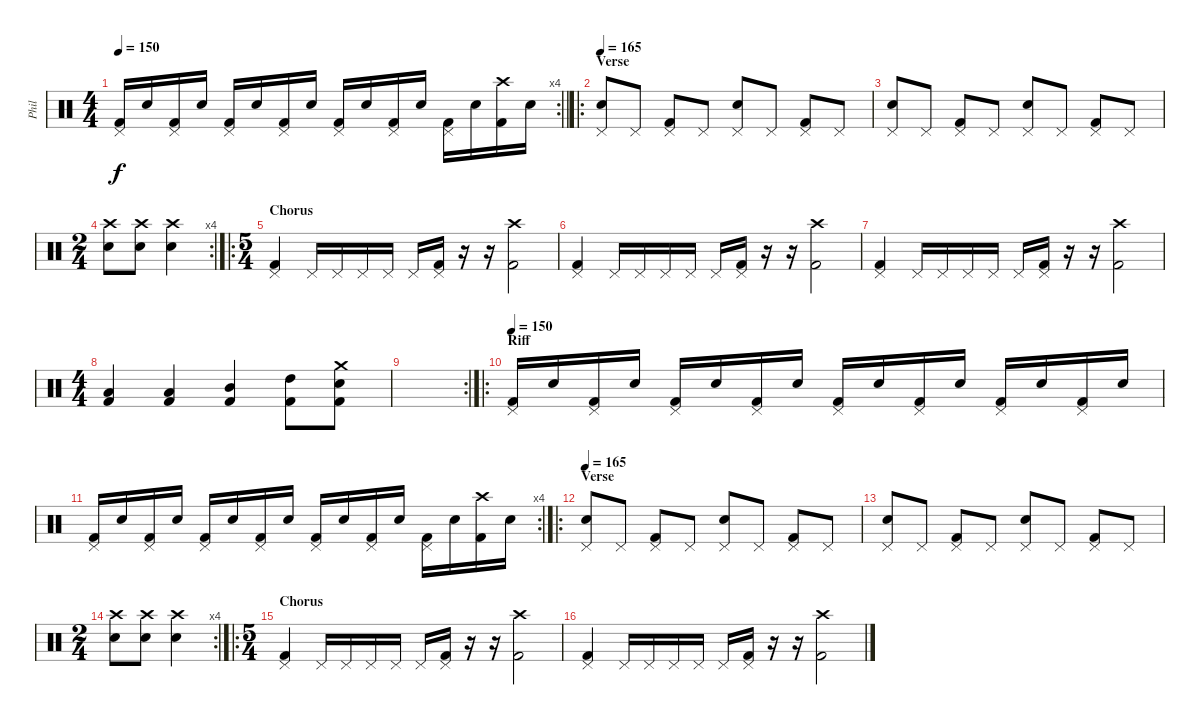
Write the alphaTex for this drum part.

\track ("Phil" "Phil") {instrument percussion}
\staff {score}
\articulation defaults
\rc 4
\ts (4 4)
\tempo 150
\clef neutral
\barLineRight lightlight
\ks c
("Pedal Hi-Hat (hit)" "Kick (hit) 2").16{dy f} "Electric Snare (hit)".16 ("Pedal Hi-Hat (hit)" "Kick (hit) 2").16 "Electric Snare (hit)".16 ("Pedal Hi-Hat (hit)" "Kick (hit) 2").16 "Electric Snare (hit)".16 ("Pedal Hi-Hat (hit)" "Kick (hit) 2").16 "Electric Snare (hit)".16 ("Pedal Hi-Hat (hit)" "Kick (hit) 2").16 "Electric Snare (hit)".16 ("Pedal Hi-Hat (hit)" "Kick (hit) 2").16 "Electric Snare (hit)".16 ("Pedal Hi-Hat (hit)" "Kick (hit) 2").16 "Electric Snare (hit)".16 ("Crash high (hit)" "Kick (hit) 2").16 "Electric Snare (hit)".16 |
\ro
\section ("" "Verse")
\tempo 165
("Pedal Hi-Hat (hit)" "Electric Snare (hit)").8 "Pedal Hi-Hat (hit)".8 ("Pedal Hi-Hat (hit)" "Kick (hit) 2").8 "Pedal Hi-Hat (hit)".8 ("Pedal Hi-Hat (hit)" "Electric Snare (hit)").8 "Pedal Hi-Hat (hit)".8 ("Pedal Hi-Hat (hit)" "Kick (hit) 2").8 "Pedal Hi-Hat (hit)".8 |
("Pedal Hi-Hat (hit)" "Electric Snare (hit)").8 "Pedal Hi-Hat (hit)".8 ("Pedal Hi-Hat (hit)" "Kick (hit) 2").8 "Pedal Hi-Hat (hit)".8 ("Pedal Hi-Hat (hit)" "Electric Snare (hit)").8 "Pedal Hi-Hat (hit)".8 ("Pedal Hi-Hat (hit)" "Kick (hit) 2").8 "Pedal Hi-Hat (hit)".8 |
\rc 4
\ts (2 4)
("Crash high (hit)" "Electric Snare (hit)").8 ("Crash high (hit)" "Electric Snare (hit)").8 ("Crash high (hit)" "Electric Snare (hit)").4 |
\ro
\ts (5 4)
\section ("" "Chorus")
("Pedal Hi-Hat (hit)" "Kick (hit) 2").4 "Pedal Hi-Hat (hit)".16 "Pedal Hi-Hat (hit)".16 "Pedal Hi-Hat (hit)".16 "Pedal Hi-Hat (hit)".16 "Pedal Hi-Hat (hit)".16 ("Pedal Hi-Hat (hit)" "Kick (hit) 2").16 r.16 r.16 ("Crash high (hit)" "Kick (hit) 2").2 |
("Pedal Hi-Hat (hit)" "Kick (hit) 2").4 "Pedal Hi-Hat (hit)".16 "Pedal Hi-Hat (hit)".16 "Pedal Hi-Hat (hit)".16 "Pedal Hi-Hat (hit)".16 "Pedal Hi-Hat (hit)".16 ("Pedal Hi-Hat (hit)" "Kick (hit) 2").16 r.16 r.16 ("Crash high (hit)" "Kick (hit) 2").2 |
("Pedal Hi-Hat (hit)" "Kick (hit) 2").4 "Pedal Hi-Hat (hit)".16 "Pedal Hi-Hat (hit)".16 "Pedal Hi-Hat (hit)".16 "Pedal Hi-Hat (hit)".16 "Pedal Hi-Hat (hit)".16 ("Pedal Hi-Hat (hit)" "Kick (hit) 2").16 r.16 r.16 ("Crash high (hit)" "Kick (hit) 2").2 |
\ts (4 4)
("Low Tom (hit)" "Kick (hit) 2").4 ("Low Tom (hit)" "Kick (hit) 2").4 ("Mid Tom (hit)" "Kick (hit) 2").4 ("High Tom (hit)" "Kick (hit) 2").8 ("Crash medium (hit)" "Electric Snare (hit)" "Kick (hit) 2").8 |
\rc 2
|
\ro
\section ("" "Riff")
\tempo 150
("Pedal Hi-Hat (hit)" "Kick (hit) 2").16 "Electric Snare (hit)".16 ("Pedal Hi-Hat (hit)" "Kick (hit) 2").16 "Electric Snare (hit)".16 ("Pedal Hi-Hat (hit)" "Kick (hit) 2").16 "Electric Snare (hit)".16 ("Pedal Hi-Hat (hit)" "Kick (hit) 2").16 "Electric Snare (hit)".16 ("Pedal Hi-Hat (hit)" "Kick (hit) 2").16 "Electric Snare (hit)".16 ("Pedal Hi-Hat (hit)" "Kick (hit) 2").16 "Electric Snare (hit)".16 ("Pedal Hi-Hat (hit)" "Kick (hit) 2").16 "Electric Snare (hit)".16 ("Pedal Hi-Hat (hit)" "Kick (hit) 2").16 "Electric Snare (hit)".16 |
\rc 4
("Pedal Hi-Hat (hit)" "Kick (hit) 2").16 "Electric Snare (hit)".16 ("Pedal Hi-Hat (hit)" "Kick (hit) 2").16 "Electric Snare (hit)".16 ("Pedal Hi-Hat (hit)" "Kick (hit) 2").16 "Electric Snare (hit)".16 ("Pedal Hi-Hat (hit)" "Kick (hit) 2").16 "Electric Snare (hit)".16 ("Pedal Hi-Hat (hit)" "Kick (hit) 2").16 "Electric Snare (hit)".16 ("Pedal Hi-Hat (hit)" "Kick (hit) 2").16 "Electric Snare (hit)".16 ("Pedal Hi-Hat (hit)" "Kick (hit) 2").16 "Electric Snare (hit)".16 ("Crash high (hit)" "Kick (hit) 2").16 "Electric Snare (hit)".16 |
\ro
\section ("" "Verse")
\tempo 165
("Pedal Hi-Hat (hit)" "Electric Snare (hit)").8 "Pedal Hi-Hat (hit)".8 ("Pedal Hi-Hat (hit)" "Kick (hit) 2").8 "Pedal Hi-Hat (hit)".8 ("Pedal Hi-Hat (hit)" "Electric Snare (hit)").8 "Pedal Hi-Hat (hit)".8 ("Pedal Hi-Hat (hit)" "Kick (hit) 2").8 "Pedal Hi-Hat (hit)".8 |
("Pedal Hi-Hat (hit)" "Electric Snare (hit)").8 "Pedal Hi-Hat (hit)".8 ("Pedal Hi-Hat (hit)" "Kick (hit) 2").8 "Pedal Hi-Hat (hit)".8 ("Pedal Hi-Hat (hit)" "Electric Snare (hit)").8 "Pedal Hi-Hat (hit)".8 ("Pedal Hi-Hat (hit)" "Kick (hit) 2").8 "Pedal Hi-Hat (hit)".8 |
\rc 4
\ts (2 4)
("Crash high (hit)" "Electric Snare (hit)").8 ("Crash high (hit)" "Electric Snare (hit)").8 ("Crash high (hit)" "Electric Snare (hit)").4 |
\ro
\ts (5 4)
\section ("" "Chorus")
("Pedal Hi-Hat (hit)" "Kick (hit) 2").4 "Pedal Hi-Hat (hit)".16 "Pedal Hi-Hat (hit)".16 "Pedal Hi-Hat (hit)".16 "Pedal Hi-Hat (hit)".16 "Pedal Hi-Hat (hit)".16 ("Pedal Hi-Hat (hit)" "Kick (hit) 2").16 r.16 r.16 ("Crash high (hit)" "Kick (hit) 2").2 |
("Pedal Hi-Hat (hit)" "Kick (hit) 2").4 "Pedal Hi-Hat (hit)".16 "Pedal Hi-Hat (hit)".16 "Pedal Hi-Hat (hit)".16 "Pedal Hi-Hat (hit)".16 "Pedal Hi-Hat (hit)".16 ("Pedal Hi-Hat (hit)" "Kick (hit) 2").16 r.16 r.16 ("Crash high (hit)" "Kick (hit) 2").2
